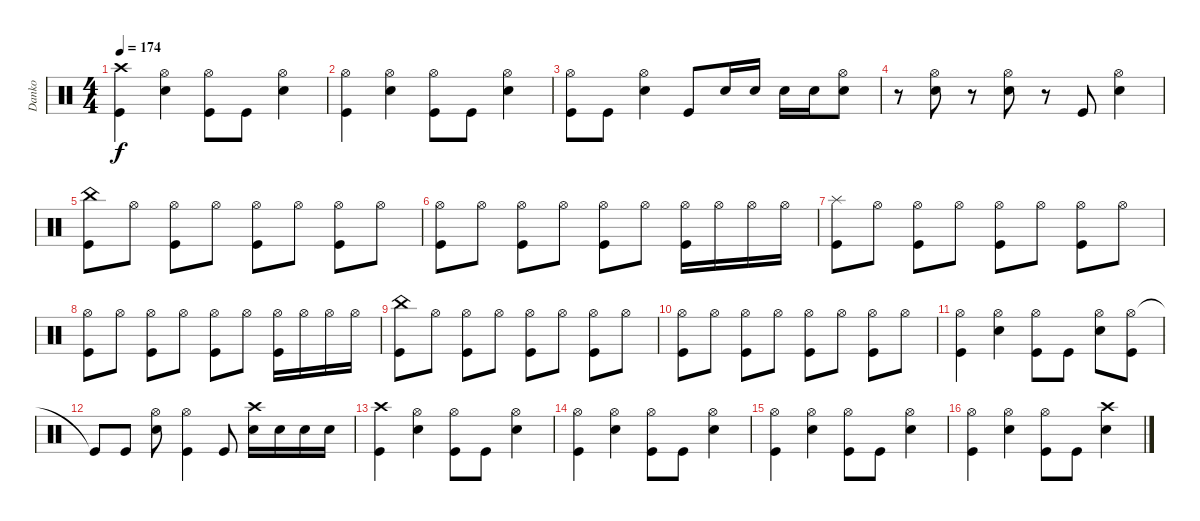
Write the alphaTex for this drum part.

\track ("Danko" "Danko") {instrument percussion}
\staff {score}
\articulation defaults
\ts (4 4)
\tempo 174
\clef neutral
\ks c
("Crash high (hit)" "Kick (hit)").4{dy f} ("Hi-Hat (open)" "Snare (hit) 2").4 ("Hi-Hat (open)" "Kick (hit)").8 "Kick (hit)".8 ("Hi-Hat (open)" "Snare (hit) 2").4 |
("Hi-Hat (open)" "Kick (hit)").4 ("Hi-Hat (open)" "Snare (hit) 2").4 ("Hi-Hat (open)" "Kick (hit)").8 "Kick (hit)".8 ("Hi-Hat (open)" "Snare (hit) 2").4 |
("Hi-Hat (open)" "Kick (hit)").8 "Kick (hit)".8 ("Hi-Hat (open)" "Snare (hit) 2").4 "Kick (hit)".8 "Snare (hit) 2".16 "Snare (hit) 2".16 "Snare (hit) 2".16 "Snare (hit) 2".16 ("Hi-Hat (open)" "Snare (hit) 2").8 |
r.8 ("Hi-Hat (open)" "Snare (hit) 2").8 r.8 ("Hi-Hat (open)" "Snare (hit) 2").8 r.8 "Kick (hit)".8 ("Hi-Hat (open)" "Snare (hit) 2").4 |
("Kick (hit)" "China (hit)").8 "Hi-Hat (open)".8 ("Kick (hit)" "Hi-Hat (open)").8 "Hi-Hat (open)".8 ("Kick (hit)" "Hi-Hat (open)").8 "Hi-Hat (open)".8 ("Kick (hit)" "Hi-Hat (open)").8 "Hi-Hat (open)".8 |
("Kick (hit)" "Hi-Hat (open)").8 "Hi-Hat (open)".8 ("Kick (hit)" "Hi-Hat (open)").8 "Hi-Hat (open)".8 ("Kick (hit)" "Hi-Hat (open)").8 "Hi-Hat (open)".8 ("Kick (hit)" "Hi-Hat (open)").16 "Hi-Hat (open)".16 "Hi-Hat (open)".16 "Hi-Hat (open)".16 |
("Kick (hit)" "Splash (hit)").8 "Hi-Hat (open)".8 ("Kick (hit)" "Hi-Hat (open)").8 "Hi-Hat (open)".8 ("Kick (hit)" "Hi-Hat (open)").8 "Hi-Hat (open)".8 ("Kick (hit)" "Hi-Hat (open)").8 "Hi-Hat (open)".8 |
("Kick (hit)" "Hi-Hat (open)").8 "Hi-Hat (open)".8 ("Kick (hit)" "Hi-Hat (open)").8 "Hi-Hat (open)".8 ("Kick (hit)" "Hi-Hat (open)").8 "Hi-Hat (open)".8 ("Kick (hit)" "Hi-Hat (open)").16 "Hi-Hat (open)".16 "Hi-Hat (open)".16 "Hi-Hat (open)".16 |
("Kick (hit)" "China (hit)").8 "Hi-Hat (open)".8 ("Kick (hit)" "Hi-Hat (open)").8 "Hi-Hat (open)".8 ("Kick (hit)" "Hi-Hat (open)").8 "Hi-Hat (open)".8 ("Kick (hit)" "Hi-Hat (open)").8 "Hi-Hat (open)".8 |
("Kick (hit)" "Hi-Hat (open)").8 "Hi-Hat (open)".8 ("Kick (hit)" "Hi-Hat (open)").8 "Hi-Hat (open)".8 ("Kick (hit)" "Hi-Hat (open)").8 "Hi-Hat (open)".8 ("Kick (hit)" "Hi-Hat (open)").8 "Hi-Hat (open)".8 |
("Hi-Hat (open)" "Kick (hit)").4 ("Hi-Hat (open)" "Snare (hit) 2").4 ("Hi-Hat (open)" "Kick (hit)").8 "Kick (hit)".8 ("Hi-Hat (open)" "Snare (hit) 2").8 ("Hi-Hat (open)" "Kick (hit)").8 |
"Kick (hit)"{t}.8 "Kick (hit)".8 ("Hi-Hat (open)" "Snare (hit) 2").8 ("Hi-Hat (open)" "Kick (hit)").4 "Kick (hit)".8 ("Crash high (hit)" "Snare (hit) 2").16 "Snare (hit) 2".16 "Snare (hit) 2".16 "Snare (hit) 2".16 |
("Crash high (hit)" "Kick (hit)").4 ("Hi-Hat (open)" "Snare (hit) 2").4 ("Hi-Hat (open)" "Kick (hit)").8 "Kick (hit)".8 ("Hi-Hat (open)" "Snare (hit) 2").4 |
("Hi-Hat (open)" "Kick (hit)").4 ("Hi-Hat (open)" "Snare (hit) 2").4 ("Hi-Hat (open)" "Kick (hit)").8 "Kick (hit)".8 ("Hi-Hat (open)" "Snare (hit) 2").4 |
("Hi-Hat (open)" "Kick (hit)").4 ("Hi-Hat (open)" "Snare (hit) 2").4 ("Hi-Hat (open)" "Kick (hit)").8 "Kick (hit)".8 ("Hi-Hat (open)" "Snare (hit) 2").4 |
("Hi-Hat (open)" "Kick (hit)").4 ("Hi-Hat (open)" "Snare (hit) 2").4 ("Hi-Hat (open)" "Kick (hit)").8 "Kick (hit)".8 ("Crash high (hit)" "Snare (hit) 2").4
